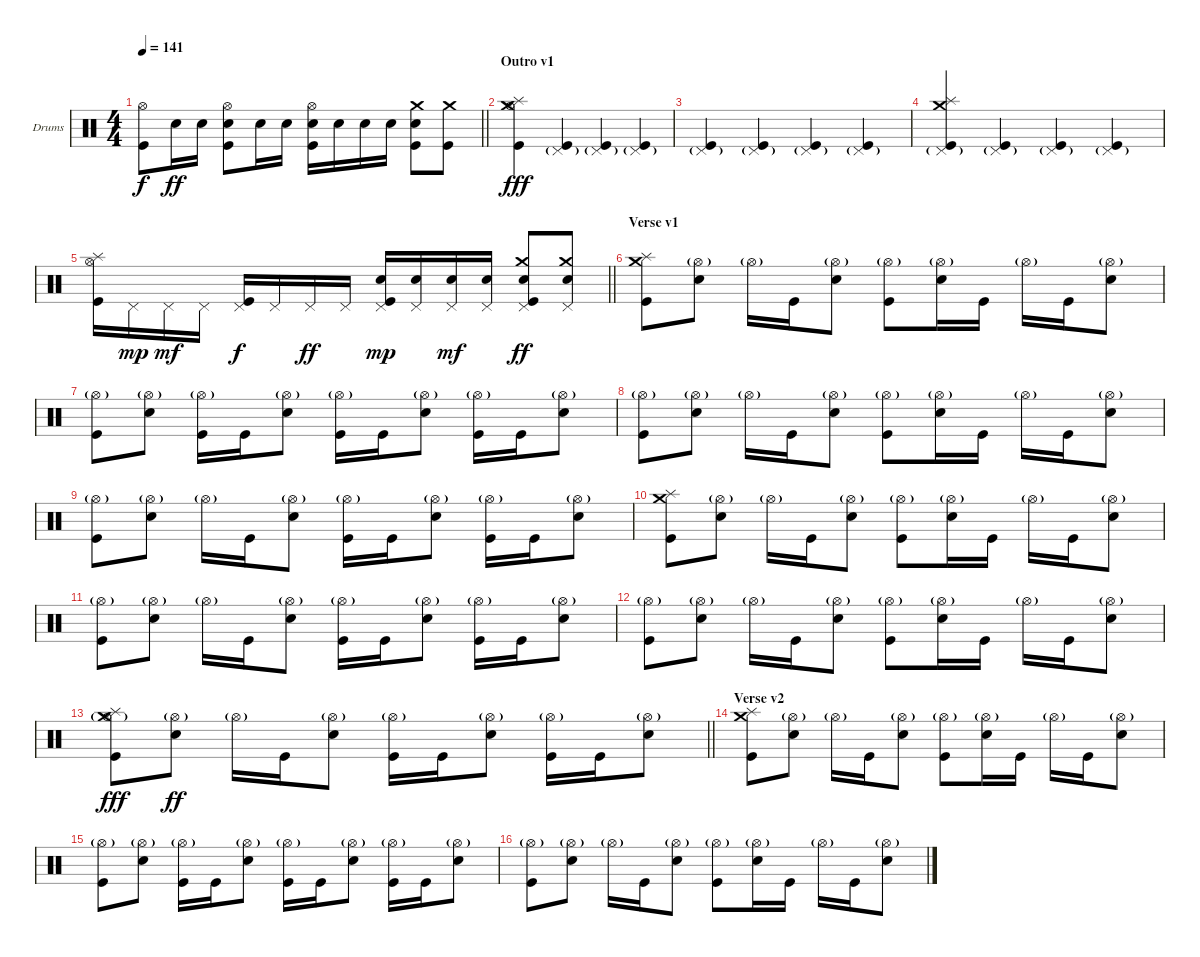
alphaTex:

\bracketExtendMode groupsimilarinstruments
\firstSystemTrackNameOrientation horizontal
\otherSystemsTrackNameOrientation horizontal
\track ("Drumkit" "Drums") {solo instrument percussion}
\staff {score}
\articulation defaults
\ts (4 4)
\tempo 141
\clef neutral
\scale
0.333333
\barLineRight lightlight
\ks c
("Hi-Hat (open)" "Kick (hit)").8{dy f} "Snare (hit) 2".16{dy ff} "Snare (hit) 2".16 ("Hi-Hat (open)" "Snare (hit) 2" "Kick (hit)").8 "Snare (hit) 2".16 "Snare (hit) 2".16 ("Hi-Hat (open)" "Snare (hit) 2" "Kick (hit)").16 "Snare (hit) 2".16 "Snare (hit) 2".16 "Snare (hit) 2".16 ("Crash medium (hit)" "Snare (hit) 2" "Kick (hit)").8 ("Crash medium (hit)" "Kick (hit)").8 |
\section ("" "Outro v1")
\scale
0.333333 ("Crash medium (hit)" "Splash (hit)" "Hi-Hat (open)" "Kick (hit)").4{dy fff} ("Pedal Hi-Hat (hit)"{g} "Kick (hit)").4 ("Pedal Hi-Hat (hit)"{g} "Kick (hit)").4 ("Pedal Hi-Hat (hit)"{g} "Kick (hit)").4 |
\scale
0.333333 ("Pedal Hi-Hat (hit)"{g} "Kick (hit)").4 ("Pedal Hi-Hat (hit)"{g} "Kick (hit)").4 ("Pedal Hi-Hat (hit)"{g} "Kick (hit)").4 ("Pedal Hi-Hat (hit)"{g} "Kick (hit)").4 |
\scale
0.333333 ("Crash medium (hit)" "Splash (hit)" "Pedal Hi-Hat (hit)"{g} "Kick (hit)").4 ("Pedal Hi-Hat (hit)"{g} "Kick (hit)").4 ("Pedal Hi-Hat (hit)"{g} "Kick (hit)").4 ("Pedal Hi-Hat (hit)"{g} "Kick (hit)").4 |
\scale
0.333333
\barLineRight lightlight
("Splash (hit)" "Hi-Hat (open)" "Kick (hit)").16 "Pedal Hi-Hat (hit)".16{dy mp} "Pedal Hi-Hat (hit)".16{dy mf} "Pedal Hi-Hat (hit)".16 ("Pedal Hi-Hat (hit)" "Kick (hit)").16{dy f} "Pedal Hi-Hat (hit)".16 "Pedal Hi-Hat (hit)".16{dy ff} "Pedal Hi-Hat (hit)".16 ("Snare (hit) 2" "Pedal Hi-Hat (hit)" "Kick (hit)").16{dy mp} ("Snare (hit) 2" "Pedal Hi-Hat (hit)").16 ("Snare (hit) 2" "Pedal Hi-Hat (hit)").16{dy mf} ("Snare (hit) 2" "Pedal Hi-Hat (hit)").16 ("Crash medium (hit)" "Snare (hit) 2" "Pedal Hi-Hat (hit)" "Kick (hit)").8{dy ff} ("Crash medium (hit)" "Snare (hit) 2" "Pedal Hi-Hat (hit)").8 |
\section ("" "Verse v1")
\scale
0.333333 ("Crash medium (hit)" "Splash (hit)" "Kick (hit)").8 ("Hi-Hat (open)"{g} "Snare (hit) 2").8 "Hi-Hat (open)"{g}.16 "Kick (hit)".16 ("Hi-Hat (open)"{g} "Snare (hit) 2").8 ("Hi-Hat (open)"{g} "Kick (hit)").8 ("Hi-Hat (open)"{g} "Snare (hit) 2").16 "Kick (hit)".16 "Hi-Hat (open)"{g}.16 "Kick (hit)".16 ("Hi-Hat (open)"{g} "Snare (hit) 2").8 |
\scale
0.333333 ("Hi-Hat (open)"{g} "Kick (hit)").8 ("Hi-Hat (open)"{g} "Snare (hit) 2").8 ("Hi-Hat (open)"{g} "Kick (hit)").16 "Kick (hit)".16 ("Hi-Hat (open)"{g} "Snare (hit) 2").8 ("Hi-Hat (open)"{g} "Kick (hit)").16 "Kick (hit)".16 ("Hi-Hat (open)"{g} "Snare (hit) 2").8 ("Hi-Hat (open)"{g} "Kick (hit)").16 "Kick (hit)".16 ("Hi-Hat (open)"{g} "Snare (hit) 2").8 |
\scale
0.333333 ("Hi-Hat (open)"{g} "Kick (hit)").8 ("Hi-Hat (open)"{g} "Snare (hit) 2").8 "Hi-Hat (open)"{g}.16 "Kick (hit)".16 ("Hi-Hat (open)"{g} "Snare (hit) 2").8 ("Hi-Hat (open)"{g} "Kick (hit)").8 ("Hi-Hat (open)"{g} "Snare (hit) 2").16 "Kick (hit)".16 "Hi-Hat (open)"{g}.16 "Kick (hit)".16 ("Hi-Hat (open)"{g} "Snare (hit) 2").8 |
\scale
0.333333 ("Hi-Hat (open)"{g} "Kick (hit)").8 ("Hi-Hat (open)"{g} "Snare (hit) 2").8 "Hi-Hat (open)"{g}.16 "Kick (hit)".16 ("Hi-Hat (open)"{g} "Snare (hit) 2").8 ("Hi-Hat (open)"{g} "Kick (hit)").16 "Kick (hit)".16 ("Hi-Hat (open)"{g} "Snare (hit) 2").8 ("Hi-Hat (open)"{g} "Kick (hit)").16 "Kick (hit)".16 ("Hi-Hat (open)"{g} "Snare (hit) 2").8 |
\scale
0.333333 ("Crash medium (hit)" "Splash (hit)" "Kick (hit)").8 ("Hi-Hat (open)"{g} "Snare (hit) 2").8 "Hi-Hat (open)"{g}.16 "Kick (hit)".16 ("Hi-Hat (open)"{g} "Snare (hit) 2").8 ("Hi-Hat (open)"{g} "Kick (hit)").8 ("Hi-Hat (open)"{g} "Snare (hit) 2").16 "Kick (hit)".16 "Hi-Hat (open)"{g}.16 "Kick (hit)".16 ("Hi-Hat (open)"{g} "Snare (hit) 2").8 |
\scale
0.333333 ("Hi-Hat (open)"{g} "Kick (hit)").8 ("Hi-Hat (open)"{g} "Snare (hit) 2").8 "Hi-Hat (open)"{g}.16 "Kick (hit)".16 ("Hi-Hat (open)"{g} "Snare (hit) 2").8 ("Hi-Hat (open)"{g} "Kick (hit)").16 "Kick (hit)".16 ("Hi-Hat (open)"{g} "Snare (hit) 2").8 ("Hi-Hat (open)"{g} "Kick (hit)").16 "Kick (hit)".16 ("Hi-Hat (open)"{g} "Snare (hit) 2").8 |
\scale
0.333333 ("Hi-Hat (open)"{g} "Kick (hit)").8 ("Hi-Hat (open)"{g} "Snare (hit) 2").8 "Hi-Hat (open)"{g}.16 "Kick (hit)".16 ("Hi-Hat (open)"{g} "Snare (hit) 2").8 ("Hi-Hat (open)"{g} "Kick (hit)").8 ("Hi-Hat (open)"{g} "Snare (hit) 2").16 "Kick (hit)".16 "Hi-Hat (open)"{g}.16 "Kick (hit)".16 ("Hi-Hat (open)"{g} "Snare (hit) 2").8 |
\scale
0.333333
\barLineRight lightlight
("Hi-Hat (open)"{g} "Splash (hit)" "Crash medium (hit)" "Kick (hit)").8{dy fff} ("Hi-Hat (open)"{g} "Snare (hit) 2").8{dy ff} "Hi-Hat (open)"{g}.16 "Kick (hit)".16 ("Hi-Hat (open)"{g} "Snare (hit) 2").8 ("Hi-Hat (open)"{g} "Kick (hit)").16 "Kick (hit)".16 ("Hi-Hat (open)"{g} "Snare (hit) 2").8 ("Hi-Hat (open)"{g} "Kick (hit)").16 "Kick (hit)".16 ("Hi-Hat (open)"{g} "Snare (hit) 2").8 |
\section ("" "Verse v2")
\scale
0.333333 ("Crash medium (hit)" "Splash (hit)" "Kick (hit)").8 ("Hi-Hat (open)"{g} "Snare (hit) 2").8 "Hi-Hat (open)"{g}.16 "Kick (hit)".16 ("Hi-Hat (open)"{g} "Snare (hit) 2").8 ("Hi-Hat (open)"{g} "Kick (hit)").8 ("Hi-Hat (open)"{g} "Snare (hit) 2").16 "Kick (hit)".16 "Hi-Hat (open)"{g}.16 "Kick (hit)".16 ("Hi-Hat (open)"{g} "Snare (hit) 2").8 |
\scale
0.333333 ("Hi-Hat (open)"{g} "Kick (hit)").8 ("Hi-Hat (open)"{g} "Snare (hit) 2").8 ("Hi-Hat (open)"{g} "Kick (hit)").16 "Kick (hit)".16 ("Hi-Hat (open)"{g} "Snare (hit) 2").8 ("Hi-Hat (open)"{g} "Kick (hit)").16 "Kick (hit)".16 ("Hi-Hat (open)"{g} "Snare (hit) 2").8 ("Hi-Hat (open)"{g} "Kick (hit)").16 "Kick (hit)".16 ("Hi-Hat (open)"{g} "Snare (hit) 2").8 |
\scale
0.333333 ("Hi-Hat (open)"{g} "Kick (hit)").8 ("Hi-Hat (open)"{g} "Snare (hit) 2").8 "Hi-Hat (open)"{g}.16 "Kick (hit)".16 ("Hi-Hat (open)"{g} "Snare (hit) 2").8 ("Hi-Hat (open)"{g} "Kick (hit)").8 ("Hi-Hat (open)"{g} "Snare (hit) 2").16 "Kick (hit)".16 "Hi-Hat (open)"{g}.16 "Kick (hit)".16 ("Hi-Hat (open)"{g} "Snare (hit) 2").8
